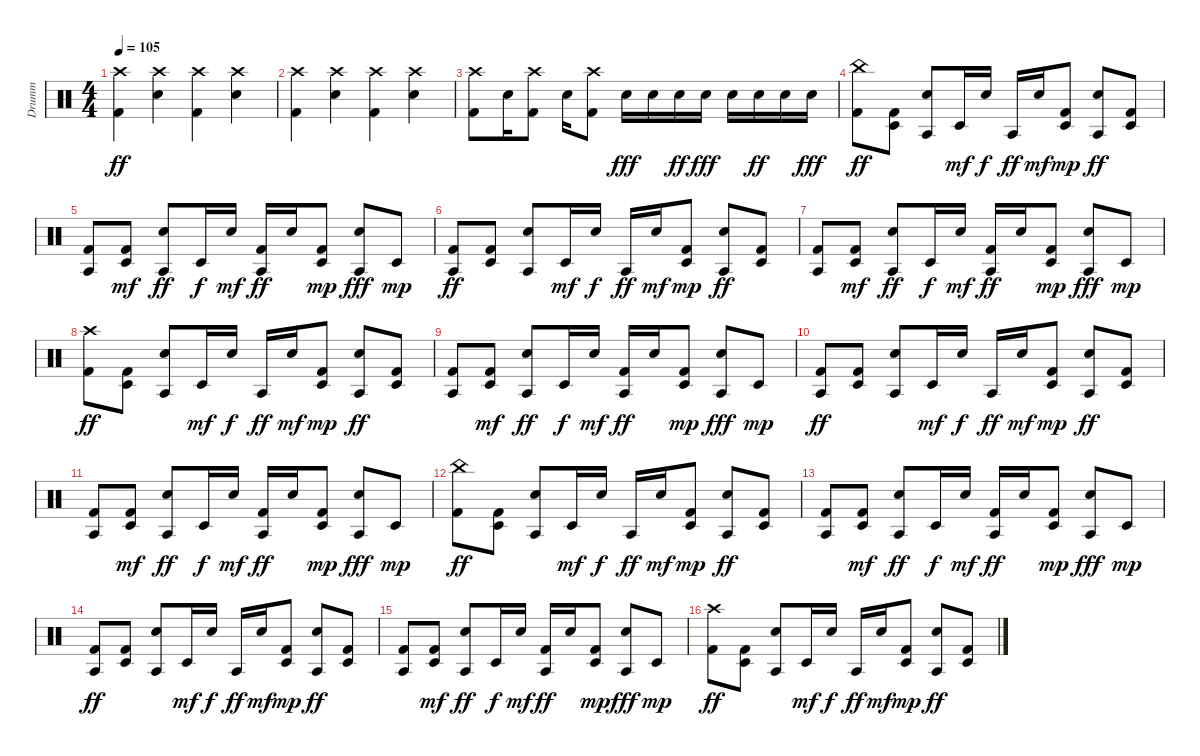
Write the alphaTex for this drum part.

\track ("Drumm" "Drumm") {instrument percussion}
\staff {score}
\articulation defaults
\ts (4 4)
\tempo 105
\clef neutral
\ks c
("Kick (hit) 2" "Crash high (hit)").4{dy ff} ("Snare (hit) 2" "Crash high (hit)").4 ("Kick (hit) 2" "Crash high (hit)").4 ("Snare (hit) 2" "Crash high (hit)").4 |
("Kick (hit) 2" "Crash high (hit)").4 ("Snare (hit) 2" "Crash high (hit)").4 ("Kick (hit) 2" "Crash high (hit)").4 ("Snare (hit) 2" "Crash high (hit)").4 |
("Kick (hit) 2" "Crash high (hit)").8 "Snare (hit) 2".16 ("Kick (hit) 2" "Crash high (hit)").8 "Snare (hit) 2".16 ("Kick (hit) 2" "Crash high (hit)").8 "Snare (hit) 2".16{dy fff} "Snare (hit) 2".16 "Snare (hit) 2".16{dy ff} "Snare (hit) 2".16{dy fff} "Snare (hit) 2".16 "Snare (hit) 2".16{dy ff} "Snare (hit) 2".16 "Snare (hit) 2".16{dy fff} |
("Kick (hit) 2" "China (hit)").8{dy ff} ("Kick (hit) 2" "Timbale low (hit)").8 ("Snare (hit) 2" "Agogo tow (hit)").8 "Timbale low (hit)".16{dy mf} "Snare (hit) 2".16{dy f} "Agogo tow (hit)".16{dy ff} "Snare (hit) 2".16{dy mf} ("Kick (hit) 2" "Timbale low (hit)").8{dy mp} ("Snare (hit) 2" "Agogo tow (hit)").8{dy ff} ("Kick (hit) 2" "Timbale low (hit)").8 |
("Kick (hit) 2" "Agogo tow (hit)").8 ("Kick (hit) 2" "Timbale low (hit)").8{dy mf} ("Snare (hit) 2" "Agogo tow (hit)").8{dy ff} "Timbale low (hit)".16{dy f} "Snare (hit) 2".16{dy mf} ("Kick (hit) 2" "Agogo tow (hit)").16{dy ff} "Snare (hit) 2".16 ("Kick (hit) 2" "Timbale low (hit)").8{dy mp} ("Snare (hit) 2" "Agogo tow (hit)").8{dy fff} "Timbale low (hit)".8{dy mp} |
("Kick (hit) 2" "Agogo tow (hit)").8{dy ff} ("Kick (hit) 2" "Timbale low (hit)").8 ("Snare (hit) 2" "Agogo tow (hit)").8 "Timbale low (hit)".16{dy mf} "Snare (hit) 2".16{dy f} "Agogo tow (hit)".16{dy ff} "Snare (hit) 2".16{dy mf} ("Kick (hit) 2" "Timbale low (hit)").8{dy mp} ("Snare (hit) 2" "Agogo tow (hit)").8{dy ff} ("Kick (hit) 2" "Timbale low (hit)").8 |
("Kick (hit) 2" "Agogo tow (hit)").8 ("Kick (hit) 2" "Timbale low (hit)").8{dy mf} ("Snare (hit) 2" "Agogo tow (hit)").8{dy ff} "Timbale low (hit)".16{dy f} "Snare (hit) 2".16{dy mf} ("Kick (hit) 2" "Agogo tow (hit)").16{dy ff} "Snare (hit) 2".16 ("Kick (hit) 2" "Timbale low (hit)").8{dy mp} ("Snare (hit) 2" "Agogo tow (hit)").8{dy fff} "Timbale low (hit)".8{dy mp} |
("Kick (hit) 2" "Crash high (hit)").8{dy ff} ("Kick (hit) 2" "Timbale low (hit)").8 ("Snare (hit) 2" "Agogo tow (hit)").8 "Timbale low (hit)".16{dy mf} "Snare (hit) 2".16{dy f} "Agogo tow (hit)".16{dy ff} "Snare (hit) 2".16{dy mf} ("Kick (hit) 2" "Timbale low (hit)").8{dy mp} ("Snare (hit) 2" "Agogo tow (hit)").8{dy ff} ("Kick (hit) 2" "Timbale low (hit)").8 |
("Kick (hit) 2" "Agogo tow (hit)").8 ("Kick (hit) 2" "Timbale low (hit)").8{dy mf} ("Snare (hit) 2" "Agogo tow (hit)").8{dy ff} "Timbale low (hit)".16{dy f} "Snare (hit) 2".16{dy mf} ("Kick (hit) 2" "Agogo tow (hit)").16{dy ff} "Snare (hit) 2".16 ("Kick (hit) 2" "Timbale low (hit)").8{dy mp} ("Snare (hit) 2" "Agogo tow (hit)").8{dy fff} "Timbale low (hit)".8{dy mp} |
("Kick (hit) 2" "Agogo tow (hit)").8{dy ff} ("Kick (hit) 2" "Timbale low (hit)").8 ("Snare (hit) 2" "Agogo tow (hit)").8 "Timbale low (hit)".16{dy mf} "Snare (hit) 2".16{dy f} "Agogo tow (hit)".16{dy ff} "Snare (hit) 2".16{dy mf} ("Kick (hit) 2" "Timbale low (hit)").8{dy mp} ("Snare (hit) 2" "Agogo tow (hit)").8{dy ff} ("Kick (hit) 2" "Timbale low (hit)").8 |
("Kick (hit) 2" "Agogo tow (hit)").8 ("Kick (hit) 2" "Timbale low (hit)").8{dy mf} ("Snare (hit) 2" "Agogo tow (hit)").8{dy ff} "Timbale low (hit)".16{dy f} "Snare (hit) 2".16{dy mf} ("Kick (hit) 2" "Agogo tow (hit)").16{dy ff} "Snare (hit) 2".16 ("Kick (hit) 2" "Timbale low (hit)").8{dy mp} ("Snare (hit) 2" "Agogo tow (hit)").8{dy fff} "Timbale low (hit)".8{dy mp} |
("Kick (hit) 2" "China (hit)").8{dy ff} ("Kick (hit) 2" "Timbale low (hit)").8 ("Snare (hit) 2" "Agogo tow (hit)").8 "Timbale low (hit)".16{dy mf} "Snare (hit) 2".16{dy f} "Agogo tow (hit)".16{dy ff} "Snare (hit) 2".16{dy mf} ("Kick (hit) 2" "Timbale low (hit)").8{dy mp} ("Snare (hit) 2" "Agogo tow (hit)").8{dy ff} ("Kick (hit) 2" "Timbale low (hit)").8 |
("Kick (hit) 2" "Agogo tow (hit)").8 ("Kick (hit) 2" "Timbale low (hit)").8{dy mf} ("Snare (hit) 2" "Agogo tow (hit)").8{dy ff} "Timbale low (hit)".16{dy f} "Snare (hit) 2".16{dy mf} ("Kick (hit) 2" "Agogo tow (hit)").16{dy ff} "Snare (hit) 2".16 ("Kick (hit) 2" "Timbale low (hit)").8{dy mp} ("Snare (hit) 2" "Agogo tow (hit)").8{dy fff} "Timbale low (hit)".8{dy mp} |
("Kick (hit) 2" "Agogo tow (hit)").8{dy ff} ("Kick (hit) 2" "Timbale low (hit)").8 ("Snare (hit) 2" "Agogo tow (hit)").8 "Timbale low (hit)".16{dy mf} "Snare (hit) 2".16{dy f} "Agogo tow (hit)".16{dy ff} "Snare (hit) 2".16{dy mf} ("Kick (hit) 2" "Timbale low (hit)").8{dy mp} ("Snare (hit) 2" "Agogo tow (hit)").8{dy ff} ("Kick (hit) 2" "Timbale low (hit)").8 |
("Kick (hit) 2" "Agogo tow (hit)").8 ("Kick (hit) 2" "Timbale low (hit)").8{dy mf} ("Snare (hit) 2" "Agogo tow (hit)").8{dy ff} "Timbale low (hit)".16{dy f} "Snare (hit) 2".16{dy mf} ("Kick (hit) 2" "Agogo tow (hit)").16{dy ff} "Snare (hit) 2".16 ("Kick (hit) 2" "Timbale low (hit)").8{dy mp} ("Snare (hit) 2" "Agogo tow (hit)").8{dy fff} "Timbale low (hit)".8{dy mp} |
("Kick (hit) 2" "Crash high (hit)").8{dy ff} ("Kick (hit) 2" "Timbale low (hit)").8 ("Snare (hit) 2" "Agogo tow (hit)").8 "Timbale low (hit)".16{dy mf} "Snare (hit) 2".16{dy f} "Agogo tow (hit)".16{dy ff} "Snare (hit) 2".16{dy mf} ("Kick (hit) 2" "Timbale low (hit)").8{dy mp} ("Snare (hit) 2" "Agogo tow (hit)").8{dy ff} ("Kick (hit) 2" "Timbale low (hit)").8
